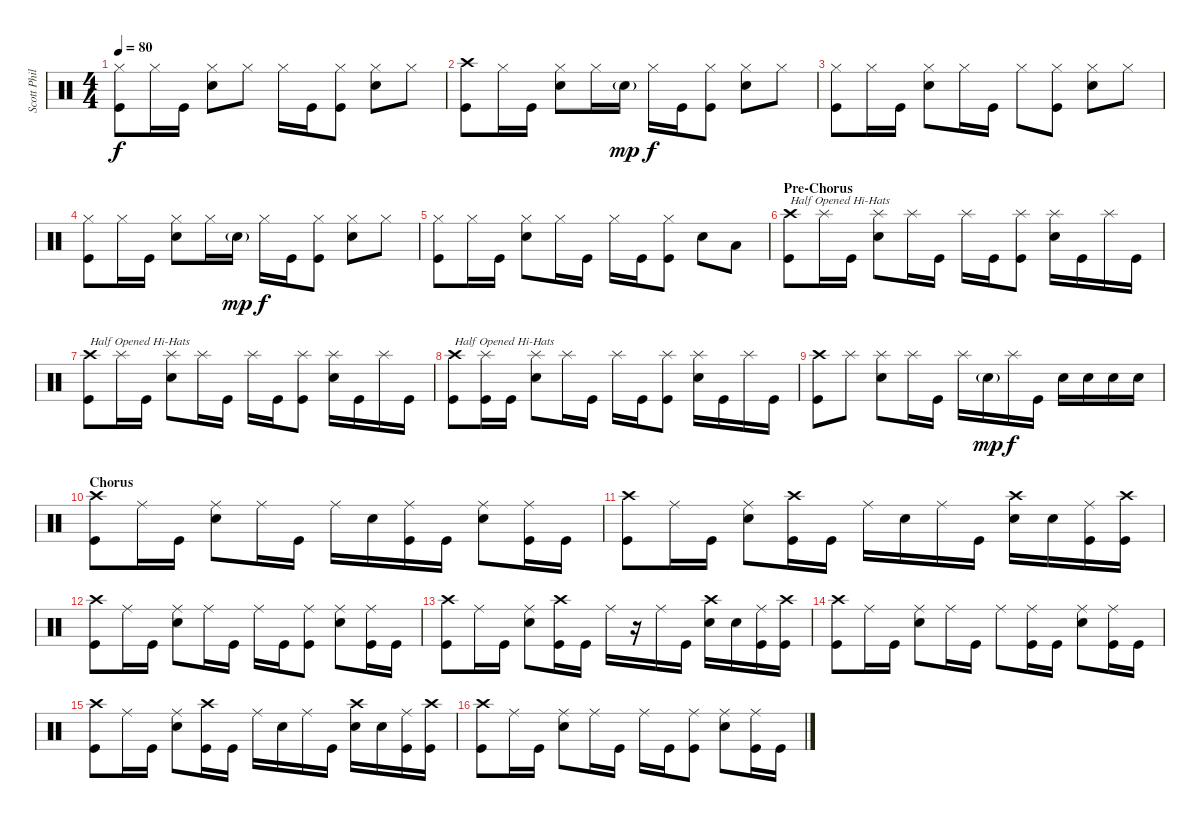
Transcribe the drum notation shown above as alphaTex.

\track ("Scott Phillips" "Scott Phil") {instrument percussion}
\staff {score}
\articulation defaults
\ts (4 4)
\tempo 80
\clef neutral
\ks c
("Hi-Hat (closed)" "Kick (hit)").8{dy f} "Hi-Hat (closed)".16 "Kick (hit)".16 ("Hi-Hat (closed)" "Snare (hit) 2").8 "Hi-Hat (closed)".8 "Hi-Hat (closed)".16 "Kick (hit)".16 ("Hi-Hat (closed)" "Kick (hit)").8 ("Hi-Hat (closed)" "Snare (hit) 2").8 "Hi-Hat (closed)".8 |
("Crash high (hit)" "Kick (hit)").8 "Hi-Hat (closed)".16 "Kick (hit)".16 ("Hi-Hat (closed)" "Snare (hit) 2").8 "Hi-Hat (closed)".16 "Snare (hit) 2"{g}.16{dy mp} "Hi-Hat (closed)".16{dy f} "Kick (hit)".16 ("Hi-Hat (closed)" "Kick (hit)").8 ("Hi-Hat (closed)" "Snare (hit) 2").8 "Hi-Hat (closed)".8 |
("Hi-Hat (closed)" "Kick (hit)").8 "Hi-Hat (closed)".16 "Kick (hit)".16 ("Hi-Hat (closed)" "Snare (hit) 2").8 "Hi-Hat (closed)".16 "Kick (hit)".16 "Hi-Hat (closed)".8 ("Hi-Hat (closed)" "Kick (hit)").8 ("Hi-Hat (closed)" "Snare (hit) 2").8 "Hi-Hat (closed)".8 |
("Hi-Hat (closed)" "Kick (hit)").8 "Hi-Hat (closed)".16 "Kick (hit)".16 ("Hi-Hat (closed)" "Snare (hit) 2").8 "Hi-Hat (closed)".16 "Snare (hit) 2"{g}.16{dy mp} "Hi-Hat (closed)".16{dy f} "Kick (hit)".16 ("Hi-Hat (closed)" "Kick (hit)").8 ("Hi-Hat (closed)" "Snare (hit) 2").8 "Hi-Hat (closed)".8 |
("Hi-Hat (closed)" "Kick (hit)").8 "Hi-Hat (closed)".16 "Kick (hit)".16 ("Hi-Hat (closed)" "Snare (hit) 2").8 "Hi-Hat (closed)".16 "Kick (hit)".16 "Hi-Hat (closed)".16 "Kick (hit)".16 ("Hi-Hat (closed)" "Kick (hit)").8 "Snare (hit) 2".8 "Low Tom (hit)".8 |
\section ("" "Pre-Chorus")
("Crash high (hit)" "Kick (hit)").8{txt "Half Opened Hi-Hats"} "Splash (hit)".16 "Kick (hit)".16 ("Splash (hit)" "Snare (hit) 2").8 "Splash (hit)".16 "Kick (hit)".16 "Splash (hit)".16 "Kick (hit)".16 ("Splash (hit)" "Kick (hit)").8 ("Splash (hit)" "Snare (hit) 2").16 "Kick (hit)".16 "Splash (hit)".16 "Kick (hit)".16 |
("Crash high (hit)" "Kick (hit)").8{txt "Half Opened Hi-Hats"} "Splash (hit)".16 "Kick (hit)".16 ("Splash (hit)" "Snare (hit) 2").8 "Splash (hit)".16 "Kick (hit)".16 "Splash (hit)".16 "Kick (hit)".16 ("Splash (hit)" "Kick (hit)").8 ("Splash (hit)" "Snare (hit) 2").16 "Kick (hit)".16 "Splash (hit)".16 "Kick (hit)".16 |
("Crash high (hit)" "Kick (hit)").8{txt "Half Opened Hi-Hats"} ("Splash (hit)" "Kick (hit)").16 "Kick (hit)".16 ("Splash (hit)" "Snare (hit) 2").8 "Splash (hit)".16 "Kick (hit)".16 "Splash (hit)".16 "Kick (hit)".16 ("Splash (hit)" "Kick (hit)").8 ("Splash (hit)" "Snare (hit) 2").16 "Kick (hit)".16 "Splash (hit)".16 "Kick (hit)".16 |
("Crash high (hit)" "Kick (hit)").8 "Splash (hit)".8 ("Splash (hit)" "Snare (hit) 2").8 "Splash (hit)".16 "Kick (hit)".16 "Splash (hit)".16 "Snare (hit) 2"{g}.16{dy mp} "Splash (hit)".16{dy f} "Kick (hit)".16 "Snare (hit) 2".16 "Snare (hit) 2".16 "Snare (hit) 2".16 "Snare (hit) 2".16 |
\section ("" "Chorus")
("Crash high (hit)" "Kick (hit)").8 "Ride (middle)".16 "Kick (hit)".16 ("Ride (middle)" "Snare (hit) 2").8 "Ride (middle)".16 "Kick (hit)".16 "Ride (middle)".16 "Snare (hit) 2".16 ("Ride (middle)" "Kick (hit)").16 "Kick (hit)".16 ("Ride (middle)" "Snare (hit) 2").8 ("Ride (middle)" "Kick (hit)").16 "Kick (hit)".16 |
("Crash high (hit)" "Kick (hit)").8 "Ride (middle)".16 "Kick (hit)".16 ("Ride (middle)" "Snare (hit) 2").8 ("Crash high (hit)" "Kick (hit)").16 "Kick (hit)".16 "Ride (middle)".16 "Snare (hit) 2".16 "Ride (middle)".16 "Kick (hit)".16 ("Crash high (hit)" "Snare (hit) 2").16 "Snare (hit) 2".16 ("Ride (middle)" "Kick (hit)").16 ("Crash high (hit)" "Kick (hit)").16 |
("Crash high (hit)" "Kick (hit)").8 "Ride (middle)".16 "Kick (hit)".16 ("Ride (middle)" "Snare (hit) 2").8 "Ride (middle)".16 "Kick (hit)".16 "Ride (middle)".16 "Kick (hit)".16 ("Ride (middle)" "Kick (hit)").8 ("Ride (middle)" "Snare (hit) 2").8 ("Ride (middle)" "Kick (hit)").16 "Kick (hit)".16 |
("Crash high (hit)" "Kick (hit)").8 "Ride (middle)".16 "Kick (hit)".16 ("Ride (middle)" "Snare (hit) 2").8 ("Crash high (hit)" "Kick (hit)").16 "Kick (hit)".16 "Ride (middle)".16 r.16 "Ride (middle)".16 "Kick (hit)".16 ("Crash high (hit)" "Snare (hit) 2").16 "Snare (hit) 2".16 ("Ride (middle)" "Kick (hit)").16 ("Crash high (hit)" "Kick (hit)").16 |
("Crash high (hit)" "Kick (hit)").8 "Ride (middle)".16 "Kick (hit)".16 ("Ride (middle)" "Snare (hit) 2").8 "Ride (middle)".16 "Kick (hit)".16 "Ride (middle)".8 ("Ride (middle)" "Kick (hit)").16 "Kick (hit)".16 ("Ride (middle)" "Snare (hit) 2").8 ("Ride (middle)" "Kick (hit)").16 "Kick (hit)".16 |
("Crash high (hit)" "Kick (hit)").8 "Ride (middle)".16 "Kick (hit)".16 ("Ride (middle)" "Snare (hit) 2").8 ("Crash high (hit)" "Kick (hit)").16 "Kick (hit)".16 "Ride (middle)".16 "Snare (hit) 2".16 "Ride (middle)".16 "Kick (hit)".16 ("Crash high (hit)" "Snare (hit) 2").16 "Snare (hit) 2".16 ("Ride (middle)" "Kick (hit)").16 ("Crash high (hit)" "Kick (hit)").16 |
("Crash high (hit)" "Kick (hit)").8 "Ride (middle)".16 "Kick (hit)".16 ("Ride (middle)" "Snare (hit) 2").8 "Ride (middle)".16 "Kick (hit)".16 "Ride (middle)".16 "Kick (hit)".16 ("Ride (middle)" "Kick (hit)").8 ("Ride (middle)" "Snare (hit) 2").8 ("Ride (middle)" "Kick (hit)").16 "Kick (hit)".16
